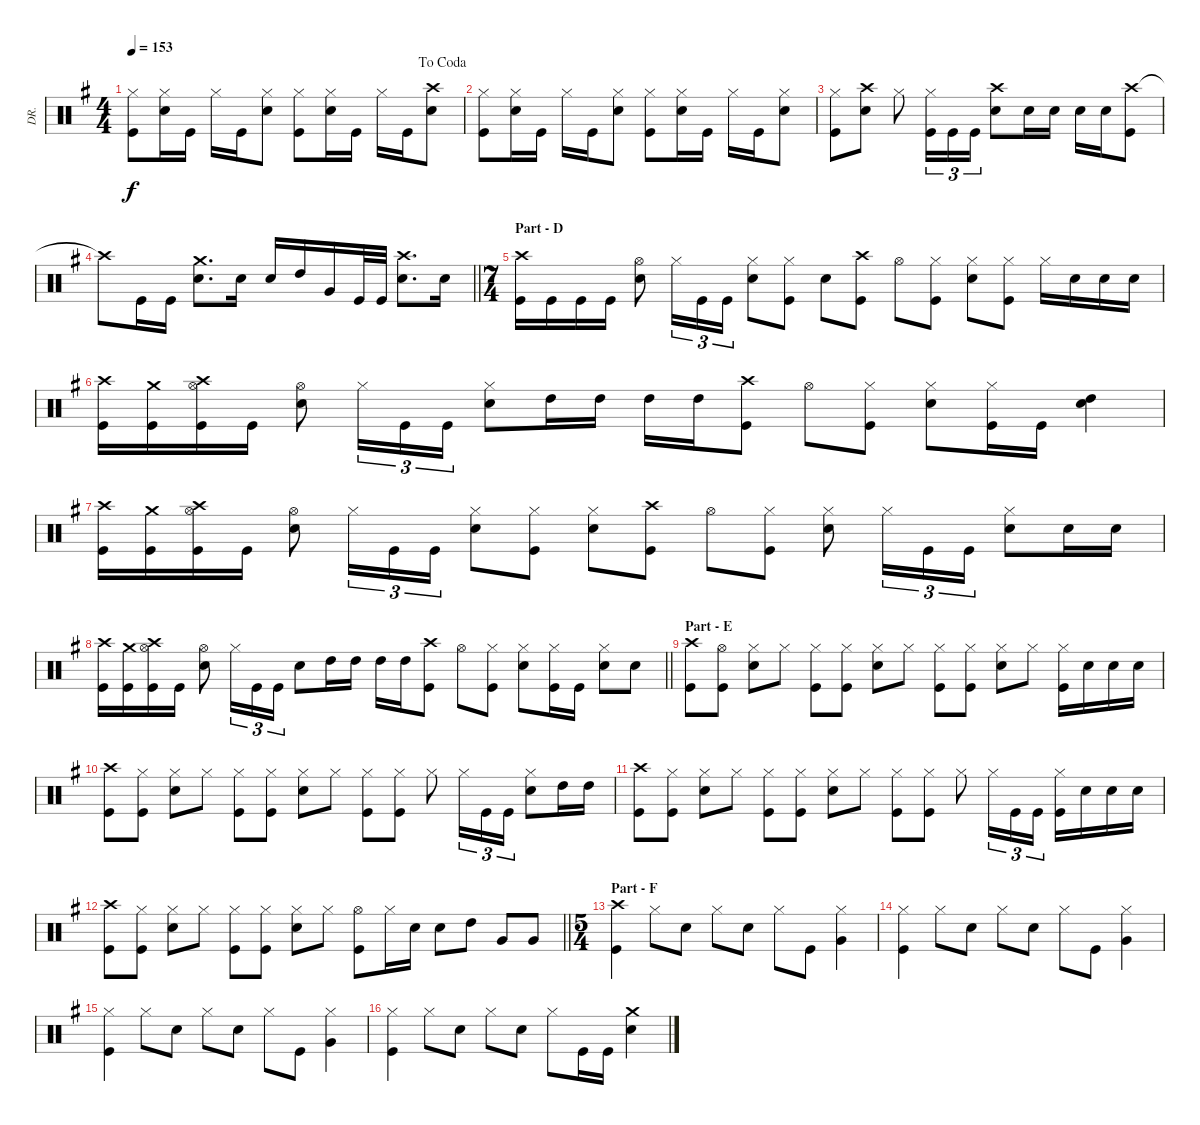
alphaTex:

\track ("DR." "DR.") {instrument percussion}
\staff {score}
\articulation defaults
\ts (4 4)
\jump dacoda
\tempo 153
\clef neutral
\ks g
("Hi-Hat (closed)" "Kick (hit)").8{dy f} ("Hi-Hat (closed)" "Snare (hit) 2").16 "Kick (hit)".16 "Hi-Hat (closed)".16 "Kick (hit)".16 ("Hi-Hat (closed)" "Snare (hit) 2").8 ("Hi-Hat (closed)" "Kick (hit)").8 ("Hi-Hat (closed)" "Snare (hit) 2").16 "Kick (hit)".16 "Hi-Hat (closed)".16 "Kick (hit)".16 ("Crash high (hit)" "Snare (hit) 2").8 |
("Hi-Hat (closed)" "Kick (hit)").8 ("Hi-Hat (closed)" "Snare (hit) 2").16 "Kick (hit)".16 "Hi-Hat (closed)".16 "Kick (hit)".16 ("Hi-Hat (closed)" "Snare (hit) 2").8 ("Hi-Hat (closed)" "Kick (hit)").8 ("Hi-Hat (closed)" "Snare (hit) 2").16 "Kick (hit)".16 "Hi-Hat (closed)".16 "Kick (hit)".16 ("Hi-Hat (closed)" "Snare (hit) 2").8 |
("Hi-Hat (closed)" "Kick (hit)").8 ("Crash high (hit)" "Snare (hit) 2").8 "Hi-Hat (closed)".8 ("Hi-Hat (closed)" "Kick (hit)").16{tu (3 2)} "Kick (hit)".16{tu (3 2)} "Kick (hit)".16{tu (3 2)} ("Crash high (hit)" "Snare (hit) 2").8 "Snare (hit) 2".16 "Snare (hit) 2".16 "Snare (hit) 2".16 "Snare (hit) 2".16 ("Crash high (hit)" "Kick (hit)").8 |
\barLineRight lightlight "Crash high (hit)"{t}.8 "Kick (hit)".16 "Kick (hit)".16
("Crash medium (hit)" "Snare (hit) 2").8{d} "Snare (hit) 2".16 "Snare (hit) 2".16 "High Tom (hit)".16 "Very Low Tom (hit)".16 "Kick (hit)".32 "Kick (hit)".32 ("Crash high (hit)" "Snare (hit) 2").8{d} "Snare (hit) 2".16 |
\ts (7 4)
\section ("" "Part - D")
("Crash high (hit)" "Kick (hit)").16 "Kick (hit)".16 "Kick (hit)".16 "Kick (hit)".16 ("Hi-Hat (open)" "Snare (hit) 2").8 "Hi-Hat (closed)".16{tu (3 2)} "Kick (hit)".16{tu (3 2)} "Kick (hit)".16{tu (3 2)} ("Hi-Hat (closed)" "Snare (hit) 2").8 ("Hi-Hat (closed)" "Kick (hit)").8 "Snare (hit) 2".8 ("Crash high (hit)" "Kick (hit)").8 "Hi-Hat (open)".8 ("Hi-Hat (closed)" "Kick (hit)").8 ("Hi-Hat (closed)" "Snare (hit) 2").8 ("Hi-Hat (closed)" "Kick (hit)").8 "Hi-Hat (closed)".16 "Snare (hit) 2".16 "Snare (hit) 2".16 "Snare (hit) 2".16 |
("Crash high (hit)" "Kick (hit)").16 ("Crash medium (hit)" "Kick (hit)").16 ("Crash high (hit)" "Hi-Hat (open)" "Kick (hit)").16 "Kick (hit)".16 ("Hi-Hat (open)" "Snare (hit) 2").8 "Hi-Hat (closed)".16{tu (3 2)} "Kick (hit)".16{tu (3 2)} "Kick (hit)".16{tu (3 2)} ("Hi-Hat (closed)" "Snare (hit) 2").8 "High Tom (hit)".16 "High Tom (hit)".16 "High Tom (hit)".16 "High Tom (hit)".16 ("Crash high (hit)" "Kick (hit)").8 "Hi-Hat (open)".8 ("Hi-Hat (closed)" "Kick (hit)").8 ("Hi-Hat (closed)" "Snare (hit) 2").8 ("Hi-Hat (closed)" "Kick (hit)").16 "Kick (hit)".16 ("High Tom (hit)" "Snare (hit) 2").4 |
("Crash high (hit)" "Kick (hit)").16 ("Crash medium (hit)" "Kick (hit)").16 ("Crash high (hit)" "Hi-Hat (open)" "Kick (hit)").16 "Kick (hit)".16 ("Hi-Hat (open)" "Snare (hit) 2").8 "Hi-Hat (closed)".16{tu (3 2)} "Kick (hit)".16{tu (3 2)} "Kick (hit)".16{tu (3 2)} ("Hi-Hat (closed)" "Snare (hit) 2").8 ("Hi-Hat (closed)" "Kick (hit)").8 ("Hi-Hat (closed)" "Snare (hit) 2").8 ("Crash high (hit)" "Kick (hit)").8 "Hi-Hat (open)".8 ("Hi-Hat (closed)" "Kick (hit)").8 ("Hi-Hat (closed)" "Snare (hit) 2").8 "Hi-Hat (closed)".16{tu (3 2)} "Kick (hit)".16{tu (3 2)} "Kick (hit)".16{tu (3 2)} ("Hi-Hat (closed)" "Snare (hit) 2").8 "Snare (hit) 2".16 "Snare (hit) 2".16 |
\barLineRight lightlight
("Crash high (hit)" "Kick (hit)").16 ("Crash medium (hit)" "Kick (hit)").16 ("Crash high (hit)" "Hi-Hat (open)" "Kick (hit)").16 "Kick (hit)".16 ("Hi-Hat (open)" "Snare (hit) 2").8 "Hi-Hat (closed)".16{tu (3 2)} "Kick (hit)".16{tu (3 2)} "Kick (hit)".16{tu (3 2)} "Snare (hit) 2".8 "High Tom (hit)".16 "High Tom (hit)".16 "High Tom (hit)".16 "High Tom (hit)".16 ("Crash high (hit)" "Kick (hit)").8 "Hi-Hat (open)".8 ("Hi-Hat (closed)" "Kick (hit)").8 ("Hi-Hat (closed)" "Snare (hit) 2").8 ("Hi-Hat (closed)" "Kick (hit)").16 "Kick (hit)".16 ("Hi-Hat (closed)" "Snare (hit) 2").8 "Snare (hit) 2".8 |
\section ("" "Part - E")
("Crash high (hit)" "Kick (hit)").8 ("Hi-Hat (open)" "Kick (hit)").8 ("Hi-Hat (closed)" "Snare (hit) 2").8 "Hi-Hat (closed)".8 ("Hi-Hat (closed)" "Kick (hit)").8 ("Hi-Hat (closed)" "Kick (hit)").8 ("Hi-Hat (closed)" "Snare (hit) 2").8 "Hi-Hat (closed)".8 ("Hi-Hat (closed)" "Kick (hit)").8 ("Hi-Hat (closed)" "Kick (hit)").8 ("Hi-Hat (closed)" "Snare (hit) 2").8 "Hi-Hat (closed)".8 ("Hi-Hat (closed)" "Kick (hit)").16 "Snare (hit) 2".16 "Snare (hit) 2".16 "Snare (hit) 2".16 |
("Crash high (hit)" "Kick (hit)").8 ("Hi-Hat (closed)" "Kick (hit)").8 ("Hi-Hat (closed)" "Snare (hit) 2").8 "Hi-Hat (closed)".8 ("Hi-Hat (closed)" "Kick (hit)").8 ("Hi-Hat (closed)" "Kick (hit)").8 ("Hi-Hat (closed)" "Snare (hit) 2").8 "Hi-Hat (closed)".8 ("Hi-Hat (closed)" "Kick (hit)").8 ("Hi-Hat (closed)" "Kick (hit)").8 "Hi-Hat (closed)".8 "Hi-Hat (closed)".16{tu (3 2)} "Kick (hit)".16{tu (3 2)} "Kick (hit)".16{tu (3 2)} ("Hi-Hat (closed)" "Snare (hit) 2").8 "High Tom (hit)".16 "High Tom (hit)".16 |
("Crash high (hit)" "Kick (hit)").8 ("Hi-Hat (closed)" "Kick (hit)").8 ("Hi-Hat (closed)" "Snare (hit) 2").8 "Hi-Hat (closed)".8 ("Hi-Hat (closed)" "Kick (hit)").8 ("Hi-Hat (closed)" "Kick (hit)").8 ("Hi-Hat (closed)" "Snare (hit) 2").8 "Hi-Hat (closed)".8 ("Hi-Hat (closed)" "Kick (hit)").8 ("Hi-Hat (closed)" "Kick (hit)").8 "Hi-Hat (closed)".8 "Hi-Hat (closed)".16{tu (3 2)} "Kick (hit)".16{tu (3 2)} "Kick (hit)".16{tu (3 2)} ("Hi-Hat (closed)" "Kick (hit)").16 "Snare (hit) 2".16 "Snare (hit) 2".16 "Snare (hit) 2".16 |
\barLineRight lightlight
("Crash high (hit)" "Kick (hit)").8 ("Hi-Hat (closed)" "Kick (hit)").8 ("Hi-Hat (closed)" "Snare (hit) 2").8 "Hi-Hat (closed)".8 ("Hi-Hat (closed)" "Kick (hit)").8 ("Hi-Hat (closed)" "Kick (hit)").8 ("Hi-Hat (closed)" "Snare (hit) 2").8 "Hi-Hat (closed)".8 ("Hi-Hat (open)" "Kick (hit)").8 "Hi-Hat (closed)".16 "Snare (hit) 2".16 "Snare (hit) 2".8 "High Tom (hit)".8 "Very Low Tom (hit)".8 "Very Low Tom (hit)".8 |
\ts (5 4)
\section ("" "Part - F")
("Crash high (hit)" "Kick (hit)").4 "Hi-Hat (closed)".8 "Snare (hit) 2".8 "Hi-Hat (closed)".8 "Snare (hit) 2".8 "Hi-Hat (closed)".8 "Kick (hit)".8 ("Hi-Hat (closed)" "Very Low Tom (hit)").4 |
("Hi-Hat (closed)" "Kick (hit)").4 "Hi-Hat (closed)".8 "Snare (hit) 2".8 "Hi-Hat (closed)".8 "Snare (hit) 2".8 "Hi-Hat (closed)".8 "Kick (hit)".8 ("Hi-Hat (closed)" "Very Low Tom (hit)").4 |
("Hi-Hat (closed)" "Kick (hit)").4 "Hi-Hat (closed)".8 "Snare (hit) 2".8 "Hi-Hat (closed)".8 "Snare (hit) 2".8 "Hi-Hat (closed)".8 "Kick (hit)".8 ("Hi-Hat (closed)" "Very Low Tom (hit)").4 |
("Hi-Hat (closed)" "Kick (hit)").4 "Hi-Hat (closed)".8 "Snare (hit) 2".8 "Hi-Hat (closed)".8 "Snare (hit) 2".8 "Hi-Hat (closed)".8 "Kick (hit)".16 "Kick (hit)".16 ("Crash medium (hit)" "Snare (hit) 2").4
